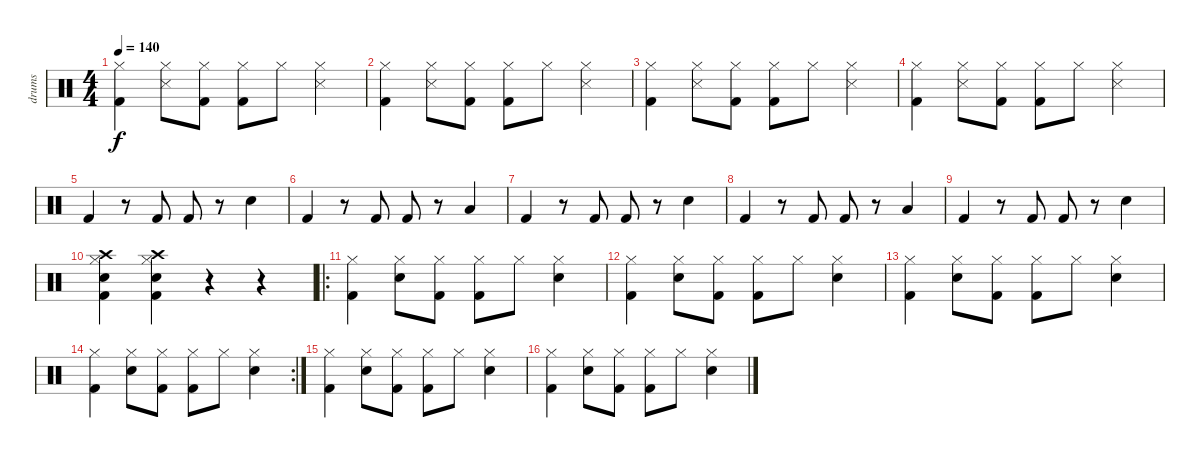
\track ("drums" "drums") {instrument percussion}
\staff {score}
\articulation defaults
\ts (4 4)
\tempo 140
\clef neutral
\ks c
("Hi-Hat (closed)" "Kick (hit) 2").4{dy f} ("Hi-Hat (closed)" "Snare (side stick) 3").8 ("Hi-Hat (closed)" "Kick (hit) 2").8 ("Hi-Hat (closed)" "Kick (hit) 2").8 "Hi-Hat (closed)".8 ("Hi-Hat (closed)" "Snare (side stick) 3").4 |
("Hi-Hat (closed)" "Kick (hit) 2").4 ("Hi-Hat (closed)" "Snare (side stick) 3").8 ("Hi-Hat (closed)" "Kick (hit) 2").8 ("Hi-Hat (closed)" "Kick (hit) 2").8 "Hi-Hat (closed)".8 ("Hi-Hat (closed)" "Snare (side stick) 3").4 |
("Hi-Hat (closed)" "Kick (hit) 2").4 ("Hi-Hat (closed)" "Snare (side stick) 3").8 ("Hi-Hat (closed)" "Kick (hit) 2").8 ("Hi-Hat (closed)" "Kick (hit) 2").8 "Hi-Hat (closed)".8 ("Hi-Hat (closed)" "Snare (side stick) 3").4 |
("Hi-Hat (closed)" "Kick (hit) 2").4 ("Hi-Hat (closed)" "Snare (side stick) 3").8 ("Hi-Hat (closed)" "Kick (hit) 2").8 ("Hi-Hat (closed)" "Kick (hit) 2").8 "Hi-Hat (closed)".8 ("Hi-Hat (closed)" "Snare (side stick) 3").4 |
"Kick (hit) 2".4 r.8 "Kick (hit) 2".8 "Kick (hit) 2".8 r.8 "Snare (hit) 2".4 |
"Kick (hit) 2".4 r.8 "Kick (hit) 2".8 "Kick (hit) 2".8 r.8 "Low Tom (hit)".4 |
"Kick (hit) 2".4 r.8 "Kick (hit) 2".8 "Kick (hit) 2".8 r.8 "Snare (hit) 2".4 |
"Kick (hit) 2".4 r.8 "Kick (hit) 2".8 "Kick (hit) 2".8 r.8 "Low Tom (hit)".4 |
"Kick (hit) 2".4 r.8 "Kick (hit) 2".8 "Kick (hit) 2".8 r.8 "Snare (hit) 2".4 |
("Crash high (hit)" "Hi-Hat (closed)" "Snare (hit) 2" "Kick (hit) 2").4 ("Crash high (hit)" "Hi-Hat (closed)" "Snare (hit) 2" "Kick (hit) 2").4 r.4 r.4 |
\ro
("Hi-Hat (closed)" "Kick (hit) 2").4 ("Hi-Hat (closed)" "Snare (hit) 2").8 ("Hi-Hat (closed)" "Kick (hit) 2").8 ("Hi-Hat (closed)" "Kick (hit) 2").8 "Hi-Hat (closed)".8 ("Hi-Hat (closed)" "Snare (hit) 2").4 |
("Hi-Hat (closed)" "Kick (hit) 2").4 ("Hi-Hat (closed)" "Snare (hit) 2").8 ("Hi-Hat (closed)" "Kick (hit) 2").8 ("Hi-Hat (closed)" "Kick (hit) 2").8 "Hi-Hat (closed)".8 ("Hi-Hat (closed)" "Snare (hit) 2").4 |
("Hi-Hat (closed)" "Kick (hit) 2").4 ("Hi-Hat (closed)" "Snare (hit) 2").8 ("Hi-Hat (closed)" "Kick (hit) 2").8 ("Hi-Hat (closed)" "Kick (hit) 2").8 "Hi-Hat (closed)".8 ("Hi-Hat (closed)" "Snare (hit) 2").4 |
\rc 2
("Hi-Hat (closed)" "Kick (hit) 2").4 ("Hi-Hat (closed)" "Snare (hit) 2").8 ("Hi-Hat (closed)" "Kick (hit) 2").8 ("Hi-Hat (closed)" "Kick (hit) 2").8 "Hi-Hat (closed)".8 ("Hi-Hat (closed)" "Snare (hit) 2").4 |
("Hi-Hat (closed)" "Kick (hit) 2").4 ("Hi-Hat (closed)" "Snare (hit) 2").8 ("Hi-Hat (closed)" "Kick (hit) 2").8 ("Hi-Hat (closed)" "Kick (hit) 2").8 "Hi-Hat (closed)".8 ("Hi-Hat (closed)" "Snare (hit) 2").4 |
("Hi-Hat (closed)" "Kick (hit) 2").4 ("Hi-Hat (closed)" "Snare (hit) 2").8 ("Hi-Hat (closed)" "Kick (hit) 2").8 ("Hi-Hat (closed)" "Kick (hit) 2").8 "Hi-Hat (closed)".8 ("Hi-Hat (closed)" "Snare (hit) 2").4
